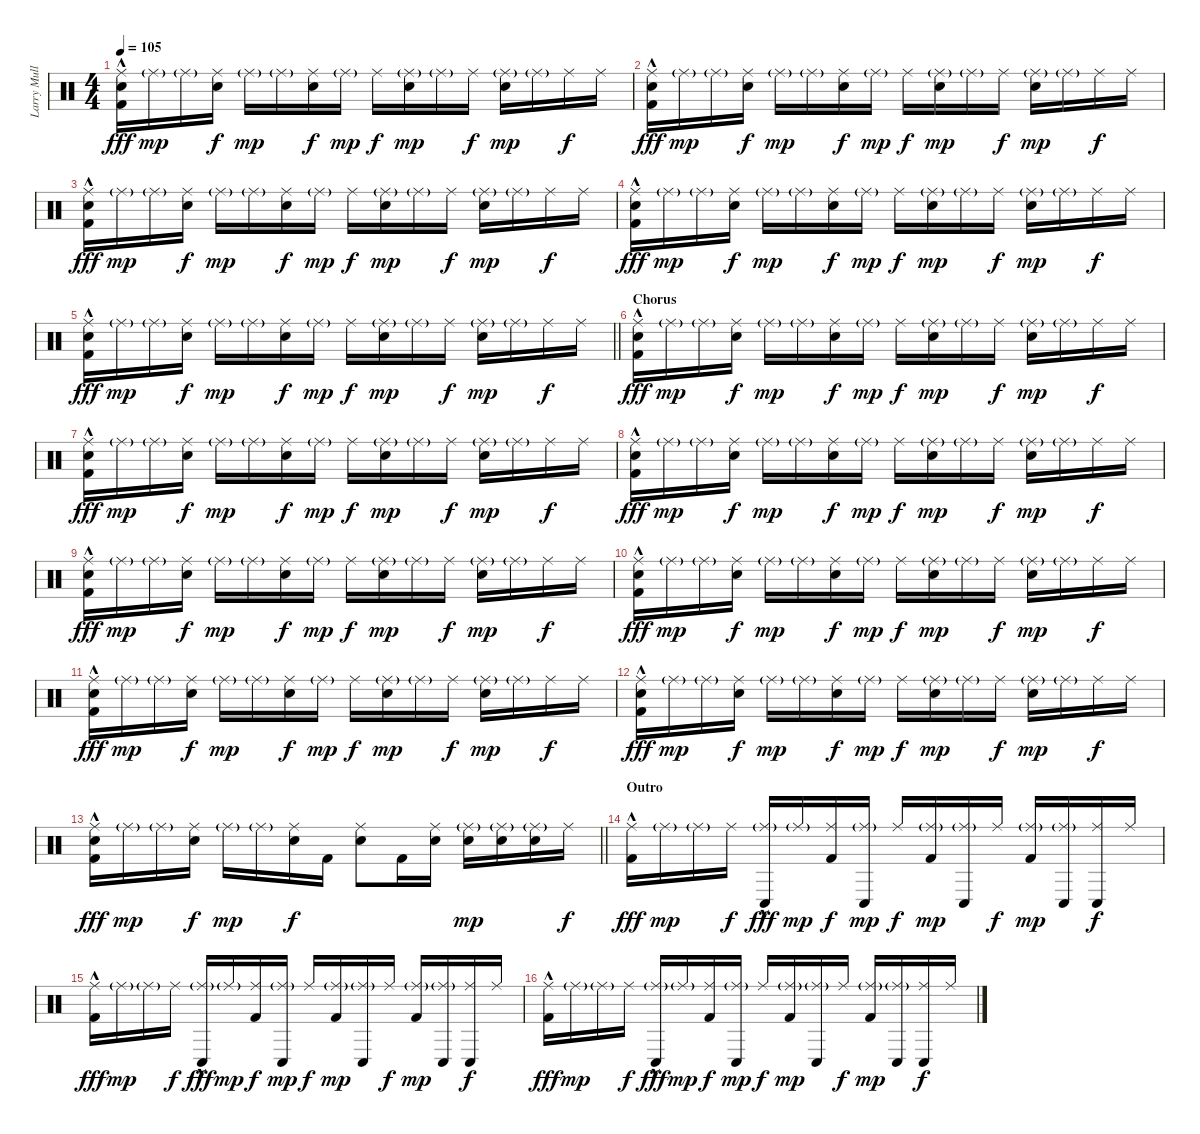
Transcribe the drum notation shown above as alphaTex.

\track ("Larry Mullen Jr." "Larry Mull") {instrument percussion}
\staff {score}
\articulation defaults
\ts (4 4)
\tempo 105
\clef neutral
\ks c
("Ride (middle)" "Electric Snare (hit)" "Kick (hit) 2"{hac}).16{dy fff} "Ride (middle)"{g}.16{dy mp} "Ride (middle)"{g}.16 ("Ride (middle)" "Electric Snare (hit)").16{dy f} "Ride (middle)"{g}.16{dy mp} "Ride (middle)"{g}.16 ("Ride (middle)" "Electric Snare (hit)").16{dy f} "Ride (middle)"{g}.16{dy mp} "Ride (middle)".16{dy f} ("Ride (middle)"{g} "Electric Snare (hit)").16{dy mp} "Ride (middle)"{g}.16 "Ride (middle)".16{dy f} ("Ride (middle)"{g} "Electric Snare (hit)").16{dy mp} "Ride (middle)"{g}.16 "Ride (middle)".16{dy f} "Ride (middle)".16 |
("Ride (middle)" "Electric Snare (hit)" "Kick (hit) 2"{hac}).16{dy fff} "Ride (middle)"{g}.16{dy mp} "Ride (middle)"{g}.16 ("Ride (middle)" "Electric Snare (hit)").16{dy f} "Ride (middle)"{g}.16{dy mp} "Ride (middle)"{g}.16 ("Ride (middle)" "Electric Snare (hit)").16{dy f} "Ride (middle)"{g}.16{dy mp} "Ride (middle)".16{dy f} ("Ride (middle)"{g} "Electric Snare (hit)").16{dy mp} "Ride (middle)"{g}.16 "Ride (middle)".16{dy f} ("Ride (middle)"{g} "Electric Snare (hit)").16{dy mp} "Ride (middle)"{g}.16 "Ride (middle)".16{dy f} "Ride (middle)".16 |
("Ride (middle)" "Electric Snare (hit)" "Kick (hit) 2"{hac}).16{dy fff} "Ride (middle)"{g}.16{dy mp} "Ride (middle)"{g}.16 ("Ride (middle)" "Electric Snare (hit)").16{dy f} "Ride (middle)"{g}.16{dy mp} "Ride (middle)"{g}.16 ("Ride (middle)" "Electric Snare (hit)").16{dy f} "Ride (middle)"{g}.16{dy mp} "Ride (middle)".16{dy f} ("Ride (middle)"{g} "Electric Snare (hit)").16{dy mp} "Ride (middle)"{g}.16 "Ride (middle)".16{dy f} ("Ride (middle)"{g} "Electric Snare (hit)").16{dy mp} "Ride (middle)"{g}.16 "Ride (middle)".16{dy f} "Ride (middle)".16 |
("Ride (middle)" "Electric Snare (hit)" "Kick (hit) 2"{hac}).16{dy fff} "Ride (middle)"{g}.16{dy mp} "Ride (middle)"{g}.16 ("Ride (middle)" "Electric Snare (hit)").16{dy f} "Ride (middle)"{g}.16{dy mp} "Ride (middle)"{g}.16 ("Ride (middle)" "Electric Snare (hit)").16{dy f} "Ride (middle)"{g}.16{dy mp} "Ride (middle)".16{dy f} ("Ride (middle)"{g} "Electric Snare (hit)").16{dy mp} "Ride (middle)"{g}.16 "Ride (middle)".16{dy f} ("Ride (middle)"{g} "Electric Snare (hit)").16{dy mp} "Ride (middle)"{g}.16 "Ride (middle)".16{dy f} "Ride (middle)".16 |
\barLineRight lightlight
("Ride (middle)" "Electric Snare (hit)" "Kick (hit) 2"{hac}).16{dy fff} "Ride (middle)"{g}.16{dy mp} "Ride (middle)"{g}.16 ("Ride (middle)" "Electric Snare (hit)").16{dy f} "Ride (middle)"{g}.16{dy mp} "Ride (middle)"{g}.16 ("Ride (middle)" "Electric Snare (hit)").16{dy f} "Ride (middle)"{g}.16{dy mp} "Ride (middle)".16{dy f} ("Ride (middle)"{g} "Electric Snare (hit)").16{dy mp} "Ride (middle)"{g}.16 "Ride (middle)".16{dy f} ("Ride (middle)"{g} "Electric Snare (hit)").16{dy mp} "Ride (middle)"{g}.16 "Ride (middle)".16{dy f} "Ride (middle)".16 |
\section ("" "Chorus")
("Ride (middle)" "Electric Snare (hit)" "Kick (hit) 2"{hac}).16{dy fff} "Ride (middle)"{g}.16{dy mp} "Ride (middle)"{g}.16 ("Ride (middle)" "Electric Snare (hit)").16{dy f} "Ride (middle)"{g}.16{dy mp} "Ride (middle)"{g}.16 ("Ride (middle)" "Electric Snare (hit)").16{dy f} "Ride (middle)"{g}.16{dy mp} "Ride (middle)".16{dy f} ("Ride (middle)"{g} "Electric Snare (hit)").16{dy mp} "Ride (middle)"{g}.16 "Ride (middle)".16{dy f} ("Ride (middle)"{g} "Electric Snare (hit)").16{dy mp} "Ride (middle)"{g}.16 "Ride (middle)".16{dy f} "Ride (middle)".16 |
("Ride (middle)" "Electric Snare (hit)" "Kick (hit) 2"{hac}).16{dy fff} "Ride (middle)"{g}.16{dy mp} "Ride (middle)"{g}.16 ("Ride (middle)" "Electric Snare (hit)").16{dy f} "Ride (middle)"{g}.16{dy mp} "Ride (middle)"{g}.16 ("Ride (middle)" "Electric Snare (hit)").16{dy f} "Ride (middle)"{g}.16{dy mp} "Ride (middle)".16{dy f} ("Ride (middle)"{g} "Electric Snare (hit)").16{dy mp} "Ride (middle)"{g}.16 "Ride (middle)".16{dy f} ("Ride (middle)"{g} "Electric Snare (hit)").16{dy mp} "Ride (middle)"{g}.16 "Ride (middle)".16{dy f} "Ride (middle)".16 |
("Ride (middle)" "Electric Snare (hit)" "Kick (hit) 2"{hac}).16{dy fff} "Ride (middle)"{g}.16{dy mp} "Ride (middle)"{g}.16 ("Ride (middle)" "Electric Snare (hit)").16{dy f} "Ride (middle)"{g}.16{dy mp} "Ride (middle)"{g}.16 ("Ride (middle)" "Electric Snare (hit)").16{dy f} "Ride (middle)"{g}.16{dy mp} "Ride (middle)".16{dy f} ("Ride (middle)"{g} "Electric Snare (hit)").16{dy mp} "Ride (middle)"{g}.16 "Ride (middle)".16{dy f} ("Ride (middle)"{g} "Electric Snare (hit)").16{dy mp} "Ride (middle)"{g}.16 "Ride (middle)".16{dy f} "Ride (middle)".16 |
("Ride (middle)" "Electric Snare (hit)" "Kick (hit) 2"{hac}).16{dy fff} "Ride (middle)"{g}.16{dy mp} "Ride (middle)"{g}.16 ("Ride (middle)" "Electric Snare (hit)").16{dy f} "Ride (middle)"{g}.16{dy mp} "Ride (middle)"{g}.16 ("Ride (middle)" "Electric Snare (hit)").16{dy f} "Ride (middle)"{g}.16{dy mp} "Ride (middle)".16{dy f} ("Ride (middle)"{g} "Electric Snare (hit)").16{dy mp} "Ride (middle)"{g}.16 "Ride (middle)".16{dy f} ("Ride (middle)"{g} "Electric Snare (hit)").16{dy mp} "Ride (middle)"{g}.16 "Ride (middle)".16{dy f} "Ride (middle)".16 |
("Ride (middle)" "Electric Snare (hit)" "Kick (hit) 2"{hac}).16{dy fff} "Ride (middle)"{g}.16{dy mp} "Ride (middle)"{g}.16 ("Ride (middle)" "Electric Snare (hit)").16{dy f} "Ride (middle)"{g}.16{dy mp} "Ride (middle)"{g}.16 ("Ride (middle)" "Electric Snare (hit)").16{dy f} "Ride (middle)"{g}.16{dy mp} "Ride (middle)".16{dy f} ("Ride (middle)"{g} "Electric Snare (hit)").16{dy mp} "Ride (middle)"{g}.16 "Ride (middle)".16{dy f} ("Ride (middle)"{g} "Electric Snare (hit)").16{dy mp} "Ride (middle)"{g}.16 "Ride (middle)".16{dy f} "Ride (middle)".16 |
("Ride (middle)" "Electric Snare (hit)" "Kick (hit) 2"{hac}).16{dy fff} "Ride (middle)"{g}.16{dy mp} "Ride (middle)"{g}.16 ("Ride (middle)" "Electric Snare (hit)").16{dy f} "Ride (middle)"{g}.16{dy mp} "Ride (middle)"{g}.16 ("Ride (middle)" "Electric Snare (hit)").16{dy f} "Ride (middle)"{g}.16{dy mp} "Ride (middle)".16{dy f} ("Ride (middle)"{g} "Electric Snare (hit)").16{dy mp} "Ride (middle)"{g}.16 "Ride (middle)".16{dy f} ("Ride (middle)"{g} "Electric Snare (hit)").16{dy mp} "Ride (middle)"{g}.16 "Ride (middle)".16{dy f} "Ride (middle)".16 |
("Ride (middle)" "Electric Snare (hit)" "Kick (hit) 2"{hac}).16{dy fff} "Ride (middle)"{g}.16{dy mp} "Ride (middle)"{g}.16 ("Ride (middle)" "Electric Snare (hit)").16{dy f} "Ride (middle)"{g}.16{dy mp} "Ride (middle)"{g}.16 ("Ride (middle)" "Electric Snare (hit)").16{dy f} "Ride (middle)"{g}.16{dy mp} "Ride (middle)".16{dy f} ("Ride (middle)"{g} "Electric Snare (hit)").16{dy mp} "Ride (middle)"{g}.16 "Ride (middle)".16{dy f} ("Ride (middle)"{g} "Electric Snare (hit)").16{dy mp} "Ride (middle)"{g}.16 "Ride (middle)".16{dy f} "Ride (middle)".16 |
\barLineRight lightlight
("Ride (middle)" "Electric Snare (hit)" "Kick (hit) 2"{hac}).16{dy fff} "Ride (middle)"{g}.16{dy mp} "Ride (middle)"{g}.16 ("Ride (middle)" "Electric Snare (hit)").16{dy f} "Ride (middle)"{g}.16{dy mp} "Ride (middle)"{g}.16 ("Ride (middle)" "Electric Snare (hit)").16{dy f} "Kick (hit) 2".16 ("Ride (middle)" "Snare (hit) 2").8 "Kick (hit) 2".16 ("Ride (middle)" "Electric Snare (hit)").16 ("Ride (middle)"{g} "Electric Snare (hit)").16{dy mp} ("Ride (middle)"{g} "Electric Snare (hit)").16 ("Ride (middle)"{g} "Snare (hit) 2").16 "Ride (middle)".16{dy f} |
\section ("" "Outro")
("Ride (middle)" "Kick (hit) 2"{hac}).16{dy fff} "Ride (middle)"{g}.16{dy mp} "Ride (middle)"{g}.16 "Ride (middle)".16{dy f} ("Ride (middle)"{g} "Conga low (hit)"{hac}).16{dy fff} "Ride (middle)"{g}.16{dy mp} ("Ride (middle)" "Kick (hit) 2").16{dy f} ("Ride (middle)"{g} "Conga low (hit)").16{dy mp} "Ride (middle)".16{dy f} ("Ride (middle)"{g} "Kick (hit) 2").16{dy mp} ("Ride (middle)"{g} "Conga low (hit)").16 "Ride (middle)".16{dy f} ("Ride (middle)"{g} "Kick (hit) 2").16{dy mp} ("Ride (middle)"{g} "Conga low (hit)").16 ("Ride (middle)" "Conga low (hit)").16{dy f} "Ride (middle)".16 |
("Ride (middle)" "Kick (hit) 2"{hac}).16{dy fff} "Ride (middle)"{g}.16{dy mp} "Ride (middle)"{g}.16 "Ride (middle)".16{dy f} ("Ride (middle)"{g} "Conga low (hit)"{hac}).16{dy fff} "Ride (middle)"{g}.16{dy mp} ("Ride (middle)" "Kick (hit) 2").16{dy f} ("Ride (middle)"{g} "Conga low (hit)").16{dy mp} "Ride (middle)".16{dy f} ("Ride (middle)"{g} "Kick (hit) 2").16{dy mp} ("Ride (middle)"{g} "Conga low (hit)").16 "Ride (middle)".16{dy f} ("Ride (middle)"{g} "Kick (hit) 2").16{dy mp} ("Ride (middle)"{g} "Conga low (hit)").16 ("Ride (middle)" "Conga low (hit)").16{dy f} "Ride (middle)".16 |
("Ride (middle)" "Kick (hit) 2"{hac}).16{dy fff} "Ride (middle)"{g}.16{dy mp} "Ride (middle)"{g}.16 "Ride (middle)".16{dy f} ("Ride (middle)"{g} "Conga low (hit)"{hac}).16{dy fff} "Ride (middle)"{g}.16{dy mp} ("Ride (middle)" "Kick (hit) 2").16{dy f} ("Ride (middle)"{g} "Conga low (hit)").16{dy mp} "Ride (middle)".16{dy f} ("Ride (middle)"{g} "Kick (hit) 2").16{dy mp} ("Ride (middle)"{g} "Conga low (hit)").16 "Ride (middle)".16{dy f} ("Ride (middle)"{g} "Kick (hit) 2").16{dy mp} ("Ride (middle)"{g} "Conga low (hit)").16 ("Ride (middle)" "Conga low (hit)").16{dy f} "Ride (middle)".16
